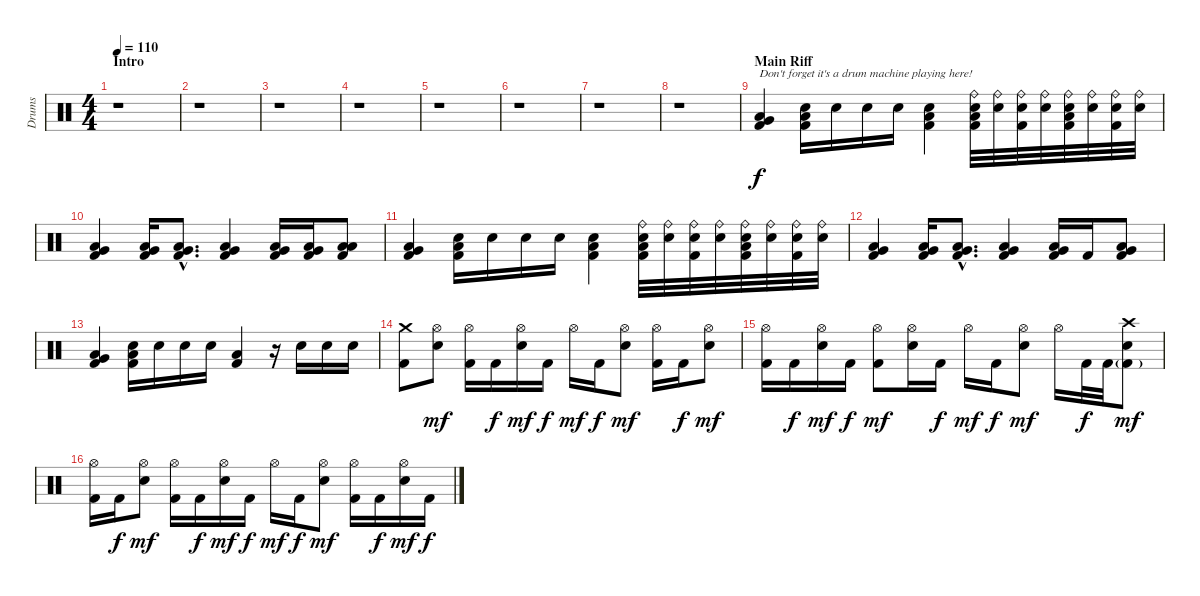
\track ("Drums" "Drums") {instrument percussion}
\staff {score}
\articulation defaults
\ts (4 4)
\section ("" "Intro")
\tempo 110
\clef neutral
\ks c
r.1{dy f} |
r.1 |
r.1 |
r.1 |
r.1 |
r.1 |
r.1 |
r.1 |
\section ("" "Main Riff")
("Very Low Tom (hit)" "Low Floor Tom (hit)" "Kick (hit) 2").4{txt "Don't forget it's a drum machine playing here!"} ("Low Floor Tom (hit)" "Electric Snare (hit)" "Kick (hit) 2").16 "Electric Snare (hit)".16 "Electric Snare (hit)".16 "Electric Snare (hit)".16 ("Low Floor Tom (hit)" "Electric Snare (hit)" "Kick (hit) 2").4 ("Ride (bell)" "Low Floor Tom (hit)" "Electric Snare (hit)" "Kick (hit) 2").32 ("Ride (bell)" "Electric Snare (hit)").32 ("Ride (bell)" "Electric Snare (hit)" "Kick (hit) 2").32 ("Ride (bell)" "Electric Snare (hit)").32 ("Ride (bell)" "Low Floor Tom (hit)" "Electric Snare (hit)" "Kick (hit) 2").32 ("Ride (bell)" "Electric Snare (hit)").32 ("Ride (bell)" "Electric Snare (hit)" "Kick (hit) 2").32 ("Ride (bell)" "Electric Snare (hit)").32 |
("Very Low Tom (hit)" "Low Floor Tom (hit)" "Kick (hit) 2").4 ("Very Low Tom (hit)" "Low Floor Tom (hit)" "Kick (hit) 2").16 ("Very Low Tom (hit)"{hac} "Low Floor Tom (hit)"{hac} "Kick (hit) 2"{hac}).8{d} ("Very Low Tom (hit)" "Low Floor Tom (hit)" "Kick (hit) 2").4 ("Very Low Tom (hit)" "Low Floor Tom (hit)" "Kick (hit) 2").16 ("Very Low Tom (hit)" "Low Floor Tom (hit)" "Kick (hit) 2").16 ("Low Tom (hit)" "Low Floor Tom (hit)" "Kick (hit) 2").8 |
("Very Low Tom (hit)" "Low Floor Tom (hit)" "Kick (hit) 2").4 ("Low Floor Tom (hit)" "Electric Snare (hit)" "Kick (hit) 2").16 "Electric Snare (hit)".16 "Electric Snare (hit)".16 "Electric Snare (hit)".16 ("Low Floor Tom (hit)" "Electric Snare (hit)" "Kick (hit) 2").4 ("Ride (bell)" "Low Floor Tom (hit)" "Electric Snare (hit)" "Kick (hit) 2").32 ("Ride (bell)" "Electric Snare (hit)").32 ("Ride (bell)" "Electric Snare (hit)" "Kick (hit) 2").32 ("Ride (bell)" "Electric Snare (hit)").32 ("Ride (bell)" "Low Floor Tom (hit)" "Electric Snare (hit)" "Kick (hit) 2").32 ("Ride (bell)" "Electric Snare (hit)").32 ("Ride (bell)" "Electric Snare (hit)" "Kick (hit) 2").32 ("Ride (bell)" "Electric Snare (hit)").32 |
("Very Low Tom (hit)" "Low Floor Tom (hit)" "Kick (hit) 2").4 ("Very Low Tom (hit)" "Low Floor Tom (hit)" "Kick (hit) 2").16 ("Very Low Tom (hit)"{hac} "Low Floor Tom (hit)"{hac} "Kick (hit) 2"{hac}).8{d} ("Very Low Tom (hit)" "Low Floor Tom (hit)" "Kick (hit) 2").4 ("Very Low Tom (hit)" "Low Floor Tom (hit)" "Kick (hit) 2").16 "Kick (hit) 2".16 ("Very Low Tom (hit)" "Low Floor Tom (hit)" "Kick (hit) 2").8 |
("Very Low Tom (hit)" "Low Floor Tom (hit)" "Kick (hit) 2").4 ("Low Floor Tom (hit)" "Electric Snare (hit)" "Kick (hit) 2").16 "Electric Snare (hit)".16 "Electric Snare (hit)".16 "Electric Snare (hit)".16 ("Low Floor Tom (hit)" "Kick (hit) 2").4 r.16 "Electric Snare (hit)".16 "Electric Snare (hit)".16 "Electric Snare (hit)".16 |
("Crash medium (hit)" "Kick (hit) 2").8 ("Hi-Hat (open)" "Electric Snare (hit)").8{dy mf} ("Hi-Hat (open)" "Kick (hit) 2").16 "Kick (hit) 2".16{dy f} ("Hi-Hat (open)" "Electric Snare (hit)").16{dy mf} "Kick (hit) 2".16{dy f} "Hi-Hat (open)".16{dy mf} "Kick (hit) 2".16{dy f} ("Hi-Hat (open)" "Electric Snare (hit)").8{dy mf} ("Hi-Hat (open)" "Kick (hit) 2").16 "Kick (hit) 2".16{dy f} ("Hi-Hat (open)" "Electric Snare (hit)").8{dy mf} |
("Hi-Hat (open)" "Kick (hit) 2").16 "Kick (hit) 2".16{dy f} ("Hi-Hat (open)" "Electric Snare (hit)").16{dy mf} "Kick (hit) 2".16{dy f} ("Hi-Hat (open)" "Kick (hit) 2").8{dy mf} ("Hi-Hat (open)" "Electric Snare (hit)").16 "Kick (hit) 2".16{dy f} "Hi-Hat (open)".16{dy mf} "Kick (hit) 2".16{dy f} ("Hi-Hat (open)" "Electric Snare (hit)").8{dy mf} "Hi-Hat (open)".16 "Kick (hit) 2".32{dy f} "Kick (hit) 2".32 ("Crash high (hit)" "Electric Snare (hit)" "Kick (hit) 2"{g}).8{dy mf} |
("Hi-Hat (open)" "Kick (hit) 2").16 "Kick (hit) 2".16{dy f} ("Hi-Hat (open)" "Electric Snare (hit)").8{dy mf} ("Hi-Hat (open)" "Kick (hit) 2").16 "Kick (hit) 2".16{dy f} ("Hi-Hat (open)" "Electric Snare (hit)").16{dy mf} "Kick (hit) 2".16{dy f} "Hi-Hat (open)".16{dy mf} "Kick (hit) 2".16{dy f} ("Hi-Hat (open)" "Electric Snare (hit)").8{dy mf} ("Hi-Hat (open)" "Kick (hit) 2").16 "Kick (hit) 2".16{dy f} ("Hi-Hat (open)" "Electric Snare (hit)").16{dy mf} "Kick (hit) 2".16{dy f}
